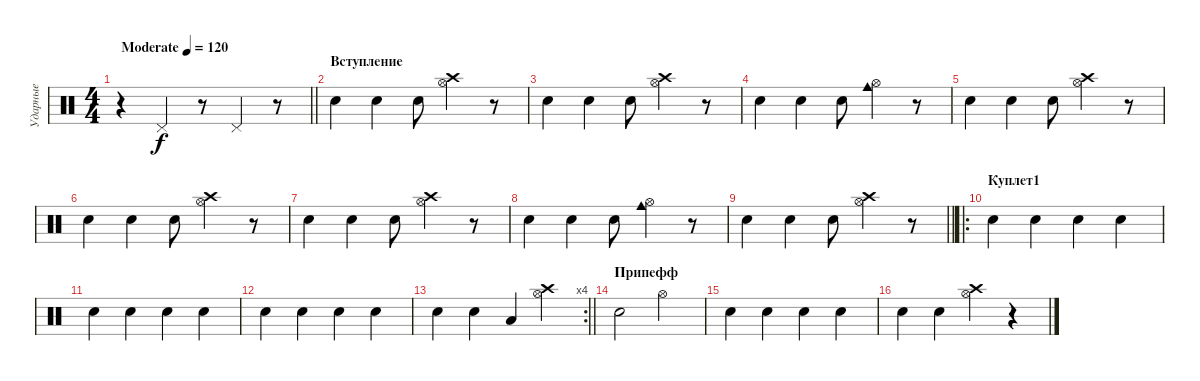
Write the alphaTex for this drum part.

\track ("Ударные" "Ударные") {instrument percussion}
\staff {score}
\articulation defaults
\ts (4 4)
\tempo (120 "Moderate")
\clef neutral
\barLineRight lightlight
\ks c
r.4{dy f} "Pedal Hi-Hat (hit)".4 r.8 "Pedal Hi-Hat (hit)".4 r.8 |
\section ("" "Вступление")
"Electric Snare (hit)".4 "Electric Snare (hit)".4 "Electric Snare (hit)".8 ("Hi-Hat (open)" "Crash high (hit)").4 r.8 |
"Electric Snare (hit)".4 "Electric Snare (hit)".4 "Electric Snare (hit)".8 ("Hi-Hat (open)" "Crash high (hit)").4 r.8 |
"Electric Snare (hit)".4 "Electric Snare (hit)".4 "Electric Snare (hit)".8 ("Hi-Hat (open)" "Cowbell medium (hit)").4 r.8 |
"Electric Snare (hit)".4 "Electric Snare (hit)".4 "Electric Snare (hit)".8 ("Hi-Hat (open)" "Crash high (hit)").4 r.8 |
"Electric Snare (hit)".4 "Electric Snare (hit)".4 "Electric Snare (hit)".8 ("Hi-Hat (open)" "Crash high (hit)").4 r.8 |
"Electric Snare (hit)".4 "Electric Snare (hit)".4 "Electric Snare (hit)".8 ("Hi-Hat (open)" "Crash high (hit)").4 r.8 |
"Electric Snare (hit)".4 "Electric Snare (hit)".4 "Electric Snare (hit)".8 ("Hi-Hat (open)" "Cowbell medium (hit)").4 r.8 |
\barLineRight lightlight "Electric Snare (hit)".4 "Electric Snare (hit)".4 "Electric Snare (hit)".8
("Hi-Hat (open)" "Crash high (hit)").4 r.8 |
\ro
\section ("" "Куплет1")
"Electric Snare (hit)".4 "Electric Snare (hit)".4 "Electric Snare (hit)".4 "Electric Snare (hit)".4 |
"Electric Snare (hit)".4 "Electric Snare (hit)".4 "Electric Snare (hit)".4 "Electric Snare (hit)".4 |
"Electric Snare (hit)".4 "Electric Snare (hit)".4 "Electric Snare (hit)".4 "Electric Snare (hit)".4 |
\rc 4
\barLineRight lightlight "Electric Snare (hit)".4 "Electric Snare (hit)".4 "Low Tom (hit)".4
("Hi-Hat (open)" "Crash high (hit)").4 |
\section ("" "Припефф")
"Electric Snare (hit)".2 "Hi-Hat (open)".2 |
"Electric Snare (hit)".4 "Electric Snare (hit)".4 "Electric Snare (hit)".4 "Electric Snare (hit)".4 |
"Electric Snare (hit)".4 "Electric Snare (hit)".4 ("Hi-Hat (open)" "Crash high (hit)").4 r.4
